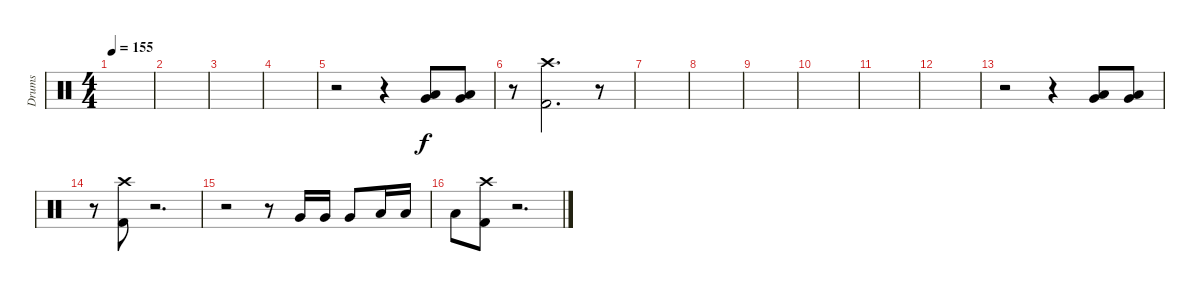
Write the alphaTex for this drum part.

\track ("Drums" "Drums") {instrument percussion}
\staff {score}
\articulation defaults
\ts (4 4)
\tempo 155
\clef neutral
\ks c
|
|
|
|
r.2 r.4 ("Low Floor Tom (hit)" "Very Low Tom (hit)").8 ("Low Floor Tom (hit)" "Very Low Tom (hit)").8 |
r.8 ("Crash high (hit)" "Kick (hit) 2").2{d} r.8 |
|
|
|
|
|
|
r.2 r.4 ("Low Floor Tom (hit)" "Very Low Tom (hit)").8 ("Low Floor Tom (hit)" "Very Low Tom (hit)").8 |
r.8 ("Crash high (hit)" "Kick (hit) 2").8 r.2{d} |
r.2 r.8 "Very Low Tom (hit)".16 "Very Low Tom (hit)".16 "Very Low Tom (hit)".8 "Low Floor Tom (hit)".16 "Low Floor Tom (hit)".16 |
"Low Floor Tom (hit)".8 ("Crash high (hit)" "Kick (hit) 2").8 r.2{d}
